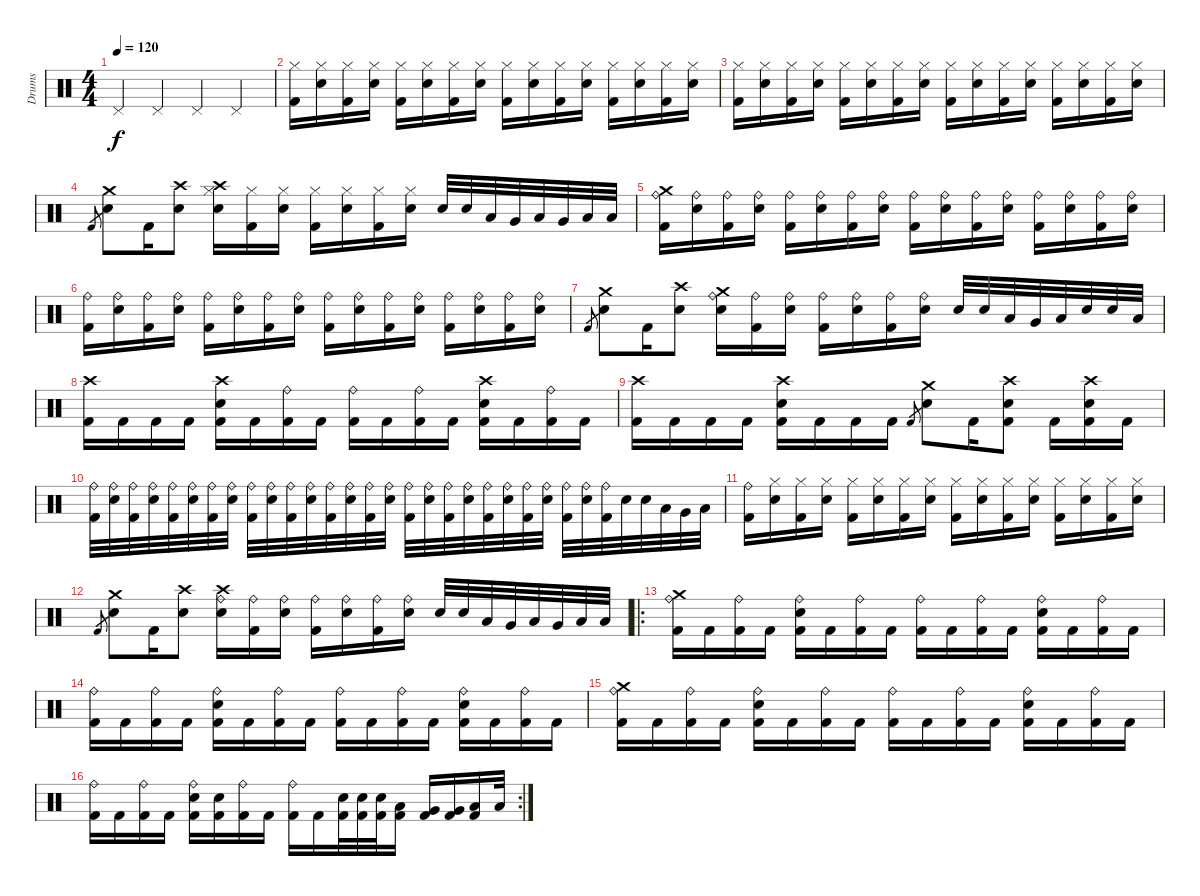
\track ("Drums" "Drums") {instrument percussion}
\staff {score}
\articulation defaults
\ts (4 4)
\tempo 120
\clef neutral
\ks c "Pedal Hi-Hat (hit)".4{dy f} "Pedal Hi-Hat (hit)".4 "Pedal Hi-Hat (hit)".4 "Pedal Hi-Hat (hit)".4
|
("Kick (hit) 2" "Hi-Hat (closed)").16 ("Electric Snare (hit)" "Hi-Hat (closed)").16 ("Kick (hit) 2" "Hi-Hat (closed)").16 ("Electric Snare (hit)" "Hi-Hat (closed)").16 ("Kick (hit) 2" "Hi-Hat (closed)").16 ("Electric Snare (hit)" "Hi-Hat (closed)").16 ("Kick (hit) 2" "Hi-Hat (closed)").16 ("Electric Snare (hit)" "Hi-Hat (closed)").16 ("Kick (hit) 2" "Hi-Hat (closed)").16 ("Electric Snare (hit)" "Hi-Hat (closed)").16 ("Kick (hit) 2" "Hi-Hat (closed)").16 ("Electric Snare (hit)" "Hi-Hat (closed)").16 ("Kick (hit) 2" "Hi-Hat (closed)").16 ("Electric Snare (hit)" "Hi-Hat (closed)").16 ("Kick (hit) 2" "Hi-Hat (closed)").16 ("Electric Snare (hit)" "Hi-Hat (closed)").16 |
("Kick (hit) 2" "Hi-Hat (closed)").16 ("Electric Snare (hit)" "Hi-Hat (closed)").16 ("Kick (hit) 2" "Hi-Hat (closed)").16 ("Electric Snare (hit)" "Hi-Hat (closed)").16 ("Kick (hit) 2" "Hi-Hat (closed)").16 ("Electric Snare (hit)" "Hi-Hat (closed)").16 ("Kick (hit) 2" "Hi-Hat (closed)").16 ("Electric Snare (hit)" "Hi-Hat (closed)").16 ("Kick (hit) 2" "Hi-Hat (closed)").16 ("Electric Snare (hit)" "Hi-Hat (closed)").16 ("Kick (hit) 2" "Hi-Hat (closed)").16 ("Electric Snare (hit)" "Hi-Hat (closed)").16 ("Kick (hit) 2" "Hi-Hat (closed)").16 ("Electric Snare (hit)" "Hi-Hat (closed)").16 ("Kick (hit) 2" "Hi-Hat (closed)").16 ("Electric Snare (hit)" "Hi-Hat (closed)").16 |
"Kick (hit) 2".8{gr} ("Electric Snare (hit)" "Crash medium (hit)").8 "Kick (hit) 2".16 ("Electric Snare (hit)" "Crash high (hit)").8 ("Crash high (hit)" "Electric Snare (hit)" "Hi-Hat (closed)").16 ("Kick (hit) 2" "Hi-Hat (closed)").16 ("Electric Snare (hit)" "Hi-Hat (closed)").16 ("Kick (hit) 2" "Hi-Hat (closed)").16 ("Electric Snare (hit)" "Hi-Hat (closed)").16 ("Kick (hit) 2" "Hi-Hat (closed)").16 ("Electric Snare (hit)" "Hi-Hat (closed)").16 "Electric Snare (hit)".32 "Electric Snare (hit)".32 "Low Tom (hit)".32 "Very Low Tom (hit)".32 "Low Tom (hit)".32 "Very Low Tom (hit)".32 "Low Floor Tom (hit)".32 "Low Floor Tom (hit)".32 |
("Crash medium (hit)" "Kick (hit) 2" "Ride (bell)").16 ("Electric Snare (hit)" "Ride (bell)").16 ("Kick (hit) 2" "Ride (bell)").16 ("Electric Snare (hit)" "Ride (bell)").16 ("Kick (hit) 2" "Ride (bell)").16 ("Electric Snare (hit)" "Ride (bell)").16 ("Kick (hit) 2" "Ride (bell)").16 ("Electric Snare (hit)" "Ride (bell)").16 ("Kick (hit) 2" "Ride (bell)").16 ("Electric Snare (hit)" "Ride (bell)").16 ("Kick (hit) 2" "Ride (bell)").16 ("Electric Snare (hit)" "Ride (bell)").16 ("Kick (hit) 2" "Ride (bell)").16 ("Electric Snare (hit)" "Ride (bell)").16 ("Kick (hit) 2" "Ride (bell)").16 ("Electric Snare (hit)" "Ride (bell)").16 |
("Kick (hit) 2" "Ride (bell)").16 ("Electric Snare (hit)" "Ride (bell)").16 ("Kick (hit) 2" "Ride (bell)").16 ("Electric Snare (hit)" "Ride (bell)").16 ("Kick (hit) 2" "Ride (bell)").16 ("Electric Snare (hit)" "Ride (bell)").16 ("Kick (hit) 2" "Ride (bell)").16 ("Electric Snare (hit)" "Ride (bell)").16 ("Kick (hit) 2" "Ride (bell)").16 ("Electric Snare (hit)" "Ride (bell)").16 ("Kick (hit) 2" "Ride (bell)").16 ("Electric Snare (hit)" "Ride (bell)").16 ("Kick (hit) 2" "Ride (bell)").16 ("Electric Snare (hit)" "Ride (bell)").16 ("Kick (hit) 2" "Ride (bell)").16 ("Electric Snare (hit)" "Ride (bell)").16 |
"Kick (hit) 2".8{gr} ("Electric Snare (hit)" "Crash medium (hit)").8 "Kick (hit) 2".16 ("Electric Snare (hit)" "Crash high (hit)").8 ("Crash medium (hit)" "Electric Snare (hit)" "Ride (bell)").16 ("Kick (hit) 2" "Ride (bell)").16 ("Electric Snare (hit)" "Ride (bell)").16 ("Kick (hit) 2" "Ride (bell)").16 ("Electric Snare (hit)" "Ride (bell)").16 ("Kick (hit) 2" "Ride (bell)").16 ("Electric Snare (hit)" "Ride (bell)").16 "Electric Snare (hit)".32 "Electric Snare (hit)".32 "Low Tom (hit)".32 "Very Low Tom (hit)".32 "Low Tom (hit)".32 "Electric Snare (hit)".32 "Electric Snare (hit)".32 "Low Floor Tom (hit)".32 |
("Crash high (hit)" "Kick (hit) 2").16 "Kick (hit) 2".16 "Kick (hit) 2".16 "Kick (hit) 2".16 ("Electric Snare (hit)" "Crash high (hit)" "Kick (hit) 2").16 "Kick (hit) 2".16 ("Ride (bell)" "Kick (hit) 2").16 "Kick (hit) 2".16 ("Ride (bell)" "Kick (hit) 2").16 "Kick (hit) 2".16 ("Ride (bell)" "Kick (hit) 2").16 "Kick (hit) 2".16 ("Electric Snare (hit)" "Crash high (hit)" "Kick (hit) 2").16 "Kick (hit) 2".16 ("Ride (bell)" "Kick (hit) 2").16 "Kick (hit) 2".16 |
("Crash high (hit)" "Kick (hit) 2").16 "Kick (hit) 2".16 "Kick (hit) 2".16 "Kick (hit) 2".16 ("Electric Snare (hit)" "Crash high (hit)" "Kick (hit) 2").16 "Kick (hit) 2".16 "Kick (hit) 2".16 "Kick (hit) 2".16 "Kick (hit) 2".8{gr} ("Electric Snare (hit)" "Crash medium (hit)").8 "Kick (hit) 2".16 ("Crash high (hit)" "Electric Snare (hit)" "Kick (hit) 2").8 "Kick (hit) 2".16 ("Electric Snare (hit)" "Crash high (hit)" "Kick (hit) 2").16 "Kick (hit) 2".16 |
("Kick (hit) 2" "Ride (bell)").32 ("Electric Snare (hit)" "Ride (bell)").32 ("Kick (hit) 2" "Ride (bell)").32 ("Electric Snare (hit)" "Ride (bell)").32 ("Kick (hit) 2" "Ride (bell)").32 ("Electric Snare (hit)" "Ride (bell)").32 ("Kick (hit) 2" "Ride (bell)").32 ("Electric Snare (hit)" "Ride (bell)").32 ("Kick (hit) 2" "Ride (bell)").32 ("Electric Snare (hit)" "Ride (bell)").32 ("Kick (hit) 2" "Ride (bell)").32 ("Electric Snare (hit)" "Ride (bell)").32 ("Kick (hit) 2" "Ride (bell)").32 ("Electric Snare (hit)" "Ride (bell)").32 ("Kick (hit) 2" "Ride (bell)").32 ("Electric Snare (hit)" "Ride (bell)").32 ("Kick (hit) 2" "Ride (bell)").32 ("Electric Snare (hit)" "Ride (bell)").32 ("Kick (hit) 2" "Ride (bell)").32 ("Electric Snare (hit)" "Ride (bell)").32 ("Kick (hit) 2" "Ride (bell)").32 ("Electric Snare (hit)" "Ride (bell)").32 ("Kick (hit) 2" "Ride (bell)").32 ("Electric Snare (hit)" "Ride (bell)").32 ("Kick (hit) 2" "Ride (bell)").32 ("Electric Snare (hit)" "Ride (bell)").32 ("Kick (hit) 2" "Ride (bell)").32 "Electric Snare (hit)".32 "Electric Snare (hit)".32 "Low Tom (hit)".32 "Very Low Tom (hit)".32 "Low Floor Tom (hit)".32 |
("Kick (hit) 2" "Ride (bell)").16 ("Electric Snare (hit)" "Hi-Hat (closed)").16 ("Kick (hit) 2" "Hi-Hat (closed)").16 ("Electric Snare (hit)" "Hi-Hat (closed)").16 ("Kick (hit) 2" "Hi-Hat (closed)").16 ("Electric Snare (hit)" "Hi-Hat (closed)").16 ("Kick (hit) 2" "Hi-Hat (closed)").16 ("Electric Snare (hit)" "Hi-Hat (closed)").16 ("Kick (hit) 2" "Hi-Hat (closed)").16 ("Electric Snare (hit)" "Hi-Hat (closed)").16 ("Kick (hit) 2" "Hi-Hat (closed)").16 ("Electric Snare (hit)" "Hi-Hat (closed)").16 ("Kick (hit) 2" "Hi-Hat (closed)").16 ("Electric Snare (hit)" "Hi-Hat (closed)").16 ("Kick (hit) 2" "Hi-Hat (closed)").16 ("Electric Snare (hit)" "Hi-Hat (closed)").16 |
"Kick (hit) 2".8{gr} ("Electric Snare (hit)" "Crash medium (hit)").8 "Kick (hit) 2".16 ("Electric Snare (hit)" "Crash high (hit)").8 ("Crash high (hit)" "Electric Snare (hit)" "Ride (bell)").16 ("Kick (hit) 2" "Ride (bell)").16 ("Electric Snare (hit)" "Ride (bell)").16 ("Kick (hit) 2" "Ride (bell)").16 ("Electric Snare (hit)" "Ride (bell)").16 ("Kick (hit) 2" "Ride (bell)").16 ("Electric Snare (hit)" "Ride (bell)").16 "Electric Snare (hit)".32 "Electric Snare (hit)".32 "Low Tom (hit)".32 "Very Low Tom (hit)".32 "Low Tom (hit)".32 "Very Low Tom (hit)".32 "Low Floor Tom (hit)".32 "Low Floor Tom (hit)".32 |
\ro
("Crash medium (hit)" "Ride (bell)" "Kick (hit) 2").16 "Kick (hit) 2".16 ("Ride (bell)" "Kick (hit) 2").16 "Kick (hit) 2".16 ("Electric Snare (hit)" "Ride (bell)" "Kick (hit) 2").16 "Kick (hit) 2".16 ("Ride (bell)" "Kick (hit) 2").16 "Kick (hit) 2".16 ("Ride (bell)" "Kick (hit) 2").16 "Kick (hit) 2".16 ("Ride (bell)" "Kick (hit) 2").16 "Kick (hit) 2".16 ("Electric Snare (hit)" "Ride (bell)" "Kick (hit) 2").16 "Kick (hit) 2".16 ("Ride (bell)" "Kick (hit) 2").16 "Kick (hit) 2".16 |
("Ride (bell)" "Kick (hit) 2").16 "Kick (hit) 2".16 ("Ride (bell)" "Kick (hit) 2").16 "Kick (hit) 2".16 ("Electric Snare (hit)" "Ride (bell)" "Kick (hit) 2").16 "Kick (hit) 2".16 ("Ride (bell)" "Kick (hit) 2").16 "Kick (hit) 2".16 ("Ride (bell)" "Kick (hit) 2").16 "Kick (hit) 2".16 ("Ride (bell)" "Kick (hit) 2").16 "Kick (hit) 2".16 ("Electric Snare (hit)" "Ride (bell)" "Kick (hit) 2").16 "Kick (hit) 2".16 ("Ride (bell)" "Kick (hit) 2").16 "Kick (hit) 2".16 |
("Crash medium (hit)" "Ride (bell)" "Kick (hit) 2").16 "Kick (hit) 2".16 ("Ride (bell)" "Kick (hit) 2").16 "Kick (hit) 2".16 ("Electric Snare (hit)" "Ride (bell)" "Kick (hit) 2").16 "Kick (hit) 2".16 ("Ride (bell)" "Kick (hit) 2").16 "Kick (hit) 2".16 ("Ride (bell)" "Kick (hit) 2").16 "Kick (hit) 2".16 ("Ride (bell)" "Kick (hit) 2").16 "Kick (hit) 2".16 ("Electric Snare (hit)" "Ride (bell)" "Kick (hit) 2").16 "Kick (hit) 2".16 ("Ride (bell)" "Kick (hit) 2").16 "Kick (hit) 2".16 |
\rc 2
("Ride (bell)" "Kick (hit) 2").16 "Kick (hit) 2".16 ("Ride (bell)" "Kick (hit) 2").16 "Kick (hit) 2".16 ("Electric Snare (hit)" "Ride (bell)" "Kick (hit) 2").16 ("Electric Snare (hit)" "Kick (hit) 2").16 ("Ride (bell)" "Kick (hit) 2").16 "Kick (hit) 2".16 ("Ride (bell)" "Kick (hit) 2").16 "Kick (hit) 2".16 ("Electric Snare (hit)" "Kick (hit) 2").32 ("Electric Snare (hit)" "Kick (hit) 2").32 ("Electric Snare (hit)" "Kick (hit) 2").32 ("Low Tom (hit)" "Kick (hit) 2").16 ("Very Low Tom (hit)" "Kick (hit) 2").16 ("Very Low Tom (hit)" "Kick (hit) 2").16 ("Low Floor Tom (hit)" "Kick (hit) 2").16 "Low Floor Tom (hit)".32
